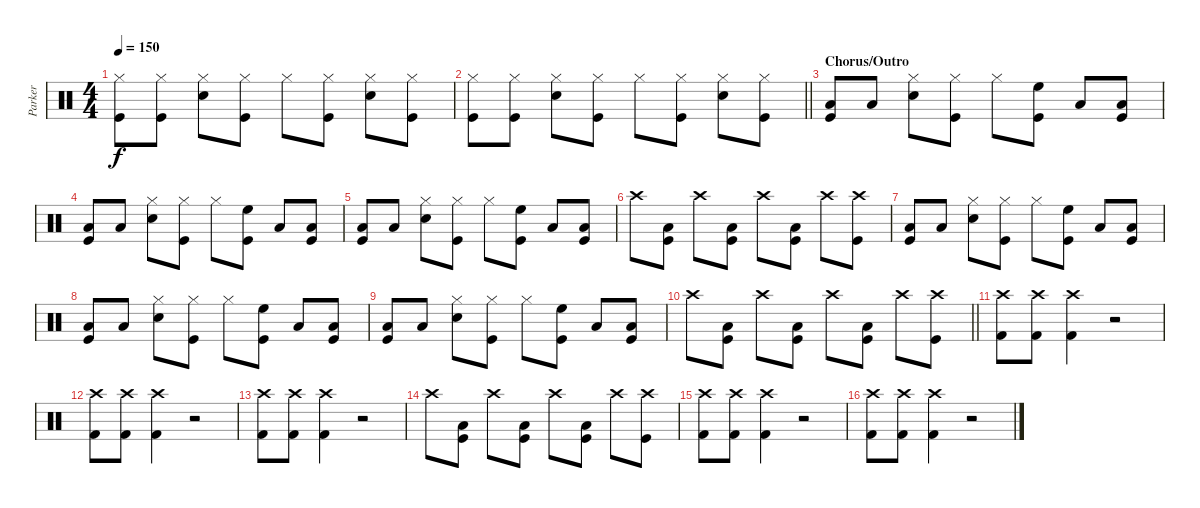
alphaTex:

\track ("Parker" "Parker") {instrument percussion}
\staff {score}
\articulation defaults
\ts (4 4)
\tempo 150
\clef neutral
\ks c
("Hi-Hat (closed)" "Kick (hit)").8{dy f} ("Hi-Hat (closed)" "Kick (hit)").8 ("Hi-Hat (closed)" "Electric Snare (hit)").8 ("Hi-Hat (closed)" "Kick (hit)").8 "Hi-Hat (closed)".8 ("Hi-Hat (closed)" "Kick (hit)").8 ("Hi-Hat (closed)" "Electric Snare (hit)").8 ("Hi-Hat (closed)" "Kick (hit)").8 |
\barLineRight lightlight
("Hi-Hat (closed)" "Kick (hit)").8 ("Hi-Hat (closed)" "Kick (hit)").8 ("Hi-Hat (closed)" "Electric Snare (hit)").8 ("Hi-Hat (closed)" "Kick (hit)").8 "Hi-Hat (closed)".8 ("Hi-Hat (closed)" "Kick (hit)").8 ("Hi-Hat (closed)" "Electric Snare (hit)").8 ("Hi-Hat (closed)" "Kick (hit)").8 |
\section ("" "Chorus/Outro")
("Low Floor Tom (hit)" "Kick (hit)").8 "Low Tom (hit)".8 ("Hi-Hat (closed)" "Electric Snare (hit)").8 ("Hi-Hat (closed)" "Kick (hit)").8 "Hi-Hat (closed)".8 ("High Floor Tom (hit)" "Kick (hit)").8 "Low Tom (hit)".8 ("Low Floor Tom (hit)" "Kick (hit)").8 |
("Low Floor Tom (hit)" "Kick (hit)").8 "Low Tom (hit)".8 ("Hi-Hat (closed)" "Electric Snare (hit)").8 ("Hi-Hat (closed)" "Kick (hit)").8 "Hi-Hat (closed)".8 ("High Floor Tom (hit)" "Kick (hit)").8 "Low Tom (hit)".8 ("Low Floor Tom (hit)" "Kick (hit)").8 |
("Low Floor Tom (hit)" "Kick (hit)").8 "Low Tom (hit)".8 ("Hi-Hat (closed)" "Electric Snare (hit)").8 ("Hi-Hat (closed)" "Kick (hit)").8 "Hi-Hat (closed)".8 ("High Floor Tom (hit)" "Kick (hit)").8 "Low Tom (hit)".8 ("Low Floor Tom (hit)" "Kick (hit)").8 |
"Crash high (hit)".8 ("Low Floor Tom (hit)" "Kick (hit)").8 "Crash high (hit)".8 ("Low Floor Tom (hit)" "Kick (hit)").8 "Crash high (hit)".8 ("Low Floor Tom (hit)" "Kick (hit)").8 "Crash high (hit)".8 ("Crash high (hit)" "Kick (hit)").8 |
("Low Floor Tom (hit)" "Kick (hit)").8 "Low Tom (hit)".8 ("Hi-Hat (closed)" "Electric Snare (hit)").8 ("Hi-Hat (closed)" "Kick (hit)").8 "Hi-Hat (closed)".8 ("High Floor Tom (hit)" "Kick (hit)").8 "Low Tom (hit)".8 ("Low Floor Tom (hit)" "Kick (hit)").8 |
("Low Floor Tom (hit)" "Kick (hit)").8 "Low Tom (hit)".8 ("Hi-Hat (closed)" "Electric Snare (hit)").8 ("Hi-Hat (closed)" "Kick (hit)").8 "Hi-Hat (closed)".8 ("High Floor Tom (hit)" "Kick (hit)").8 "Low Tom (hit)".8 ("Low Floor Tom (hit)" "Kick (hit)").8 |
("Low Floor Tom (hit)" "Kick (hit)").8 "Low Tom (hit)".8 ("Hi-Hat (closed)" "Electric Snare (hit)").8 ("Hi-Hat (closed)" "Kick (hit)").8 "Hi-Hat (closed)".8 ("High Floor Tom (hit)" "Kick (hit)").8 "Low Tom (hit)".8 ("Low Floor Tom (hit)" "Kick (hit)").8 |
\barLineRight lightlight "Crash high (hit)".8
("Low Floor Tom (hit)" "Kick (hit)").8 "Crash high (hit)".8 ("Low Floor Tom (hit)" "Kick (hit)").8 "Crash high (hit)".8 ("Low Floor Tom (hit)" "Kick (hit)").8 "Crash high (hit)".8 ("Crash high (hit)" "Kick (hit)").8 |
("Crash high (hit)" "Kick (hit) 2").8 ("Crash high (hit)" "Kick (hit) 2").8 ("Crash high (hit)" "Kick (hit) 2").4 r.2 |
("Crash high (hit)" "Kick (hit) 2").8 ("Crash high (hit)" "Kick (hit) 2").8 ("Crash high (hit)" "Kick (hit) 2").4 r.2 |
("Crash high (hit)" "Kick (hit) 2").8 ("Crash high (hit)" "Kick (hit) 2").8 ("Crash high (hit)" "Kick (hit) 2").4 r.2 |
"Crash high (hit)".8 ("Low Floor Tom (hit)" "Kick (hit)").8 "Crash high (hit)".8 ("Low Floor Tom (hit)" "Kick (hit)").8 "Crash high (hit)".8 ("Low Floor Tom (hit)" "Kick (hit)").8 "Crash high (hit)".8 ("Crash high (hit)" "Kick (hit)").8 |
("Crash high (hit)" "Kick (hit) 2").8 ("Crash high (hit)" "Kick (hit) 2").8 ("Crash high (hit)" "Kick (hit) 2").4 r.2 |
("Crash high (hit)" "Kick (hit) 2").8 ("Crash high (hit)" "Kick (hit) 2").8 ("Crash high (hit)" "Kick (hit) 2").4 r.2
